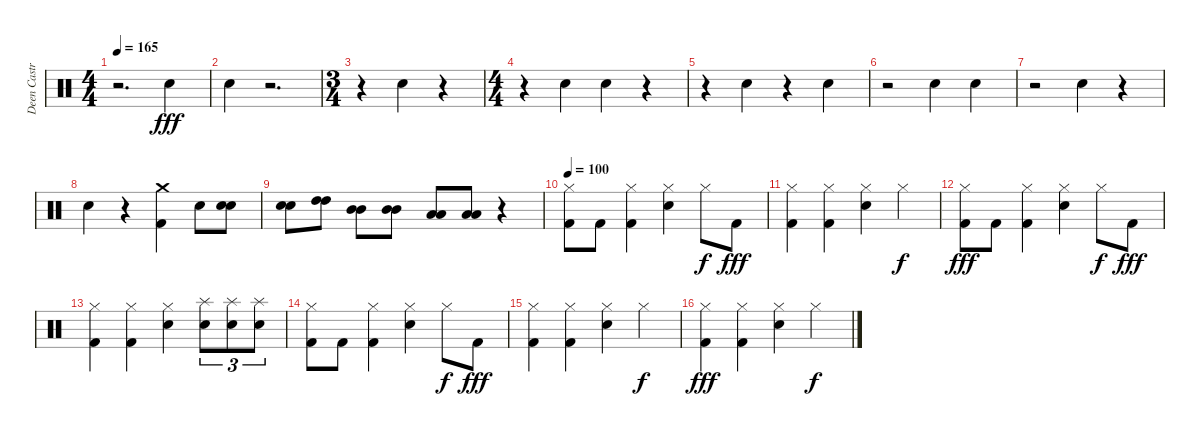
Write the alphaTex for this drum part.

\track ("Deen Castronovo" "Deen Castr") {instrument percussion}
\staff {score}
\articulation defaults
\ts (4 4)
\tempo 165
\clef neutral
\ks c
r.2{d dy fff} "Electric Snare (hit)".4 |
"Electric Snare (hit)".4 r.2{d} |
\ts (3 4)
r.4 "Electric Snare (hit)".4 r.4 |
\ts (4 4)
r.4 "Electric Snare (hit)".4 "Electric Snare (hit)".4 r.4 |
r.4 "Electric Snare (hit)".4 r.4 "Electric Snare (hit)".4 |
r.2 "Electric Snare (hit)".4 "Electric Snare (hit)".4 |
r.2 "Electric Snare (hit)".4 r.4 |
"Electric Snare (hit)".4 r.4 ("Kick (hit) 2" "Crash medium (hit)").4 "Electric Snare (hit)".8 ("Electric Snare (hit)" "Electric Snare (hit)").8 |
("Electric Snare (hit)" "Electric Snare (hit)").8 ("High Tom (hit)" "High Tom (hit)").8 ("Mid Tom (hit)" "Mid Tom (hit)").8 ("Mid Tom (hit)" "Mid Tom (hit)").8 ("Low Tom (hit)" "Low Tom (hit)").8 ("Low Tom (hit)" "Low Tom (hit)").8 r.4 |
\tempo 100
("Kick (hit) 2" "Hi-Hat (closed)").8 "Kick (hit) 2".8 ("Kick (hit) 2" "Hi-Hat (closed)").4 ("Electric Snare (hit)" "Hi-Hat (closed)").4 "Hi-Hat (closed)".8{dy f} "Kick (hit) 2".8{dy fff} |
("Kick (hit) 2" "Hi-Hat (closed)").4 ("Kick (hit) 2" "Hi-Hat (closed)").4 ("Electric Snare (hit)" "Hi-Hat (closed)").4 "Hi-Hat (closed)".4{dy f} |
("Kick (hit) 2" "Hi-Hat (closed)").8{dy fff} "Kick (hit) 2".8 ("Kick (hit) 2" "Hi-Hat (closed)").4 ("Electric Snare (hit)" "Hi-Hat (closed)").4 "Hi-Hat (closed)".8{dy f} "Kick (hit) 2".8{dy fff} |
("Kick (hit) 2" "Hi-Hat (closed)").4 ("Kick (hit) 2" "Hi-Hat (closed)").4 ("Electric Snare (hit)" "Hi-Hat (closed)").4 ("Electric Snare (hit)" "Splash (hit)").8{tu (3 2)} ("Electric Snare (hit)" "Splash (hit)").8{tu (3 2)} ("Electric Snare (hit)" "Splash (hit)").8{tu (3 2)} |
("Kick (hit) 2" "Hi-Hat (closed)").8 "Kick (hit) 2".8 ("Kick (hit) 2" "Hi-Hat (closed)").4 ("Electric Snare (hit)" "Hi-Hat (closed)").4 "Hi-Hat (closed)".8{dy f} "Kick (hit) 2".8{dy fff} |
("Kick (hit) 2" "Hi-Hat (closed)").4 ("Kick (hit) 2" "Hi-Hat (closed)").4 ("Electric Snare (hit)" "Hi-Hat (closed)").4 "Hi-Hat (closed)".4{dy f} |
("Kick (hit) 2" "Hi-Hat (closed)").4{dy fff} ("Kick (hit) 2" "Hi-Hat (closed)").4 ("Electric Snare (hit)" "Hi-Hat (closed)").4 "Hi-Hat (closed)".4{dy f}
